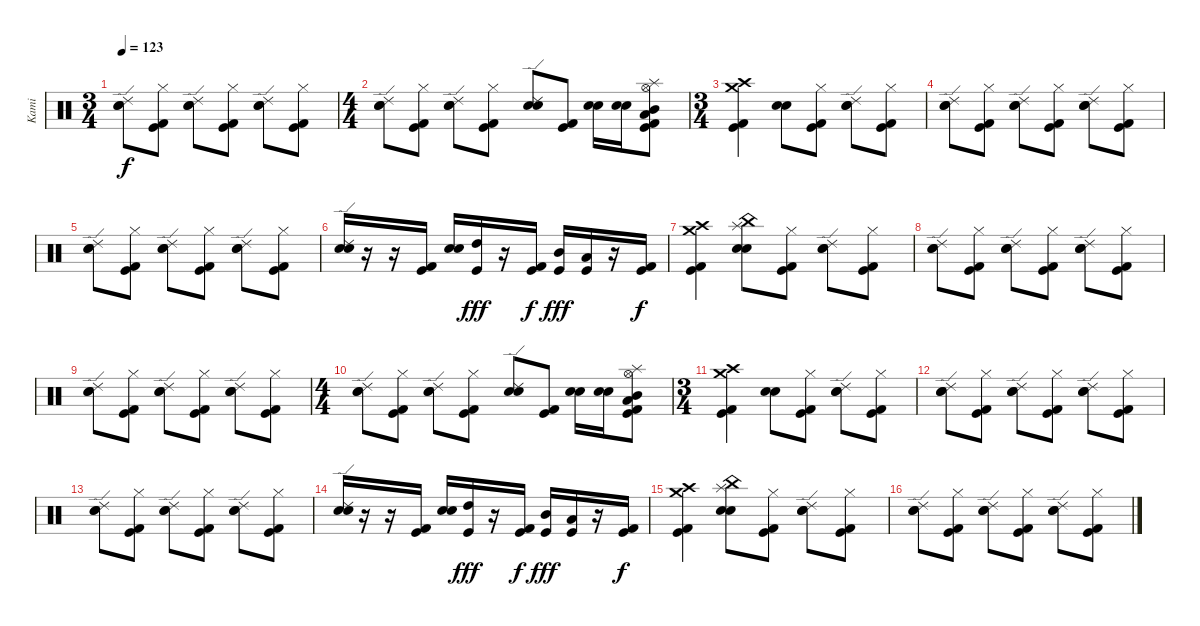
\track ("Kami" "Kami") {instrument percussion}
\staff {score}
\articulation defaults
\ts (3 4)
\tempo 123
\clef neutral
\ks c
("Snare (hit) 2" "Electric Snare (hit)" "Ride (edge) 2").8{dy f} ("Kick (hit)" "Kick (hit) 2" "Hi-Hat (closed)").8 ("Snare (hit) 2" "Electric Snare (hit)" "Ride (edge) 2").8 ("Kick (hit)" "Kick (hit) 2" "Hi-Hat (closed)").8 ("Snare (hit) 2" "Electric Snare (hit)" "Ride (edge) 2").8 ("Kick (hit)" "Kick (hit) 2" "Hi-Hat (closed)").8 |
\ts (4 4)
("Snare (hit) 2" "Electric Snare (hit)" "Ride (edge) 2").8 ("Kick (hit)" "Kick (hit) 2" "Hi-Hat (closed)").8 ("Snare (hit) 2" "Electric Snare (hit)" "Ride (edge) 2").8 ("Kick (hit)" "Kick (hit) 2" "Hi-Hat (closed)").8 ("Snare (hit) 2" "Electric Snare (hit)" "Ride (edge) 2").8 ("Kick (hit)" "Kick (hit) 2").8 ("Electric Snare (hit)" "Snare (hit) 2").16 ("Electric Snare (hit)" "Snare (hit) 2").16 ("Kick (hit)" "Kick (hit) 2" "Hi-Hat (open)" "Low Tom (hit)" "Mid Tom (hit)" "Splash (hit)").8 |
\ts (3 4)
("Kick (hit)" "Kick (hit) 2" "Crash medium (hit)" "Crash high (hit)").4 ("Electric Snare (hit)" "Snare (hit) 2").8 ("Kick (hit)" "Kick (hit) 2" "Hi-Hat (closed)").8 ("Snare (hit) 2" "Electric Snare (hit)" "Ride (edge) 2").8 ("Kick (hit)" "Kick (hit) 2" "Hi-Hat (closed)").8 |
("Snare (hit) 2" "Electric Snare (hit)" "Ride (edge) 2").8 ("Kick (hit)" "Kick (hit) 2" "Hi-Hat (closed)").8 ("Snare (hit) 2" "Electric Snare (hit)" "Ride (edge) 2").8 ("Kick (hit)" "Kick (hit) 2" "Hi-Hat (closed)").8 ("Snare (hit) 2" "Electric Snare (hit)" "Ride (edge) 2").8 ("Kick (hit)" "Kick (hit) 2" "Hi-Hat (closed)").8 |
("Snare (hit) 2" "Electric Snare (hit)" "Ride (edge) 2").8 ("Kick (hit)" "Kick (hit) 2" "Hi-Hat (closed)").8 ("Snare (hit) 2" "Electric Snare (hit)" "Ride (edge) 2").8 ("Kick (hit)" "Kick (hit) 2" "Hi-Hat (closed)").8 ("Snare (hit) 2" "Electric Snare (hit)" "Ride (edge) 2").8 ("Kick (hit)" "Kick (hit) 2" "Hi-Hat (closed)").8 |
("Snare (hit) 2" "Electric Snare (hit)" "Ride (edge) 2").16 r.16 r.16 ("Kick (hit)" "Kick (hit) 2").16 ("Electric Snare (hit)" "Snare (hit) 2").16 ("Kick (hit)" "High Tom (hit)").16{dy fff} r.16 ("Kick (hit)" "Kick (hit) 2").16{dy f} ("Kick (hit)" "Mid Tom (hit)").16{dy fff} ("Kick (hit)" "Low Tom (hit)").16 r.16 ("Kick (hit)" "Kick (hit) 2").16{dy f} |
("Kick (hit)" "Kick (hit) 2" "Crash medium (hit)" "Crash high (hit)").4 ("Electric Snare (hit)" "Snare (hit) 2" "China (hit)" "Splash (hit)").8 ("Kick (hit)" "Kick (hit) 2" "Hi-Hat (closed)").8 ("Snare (hit) 2" "Electric Snare (hit)" "Ride (edge) 2").8 ("Kick (hit)" "Kick (hit) 2" "Hi-Hat (closed)").8 |
("Snare (hit) 2" "Electric Snare (hit)" "Ride (edge) 2").8 ("Kick (hit)" "Kick (hit) 2" "Hi-Hat (closed)").8 ("Snare (hit) 2" "Electric Snare (hit)" "Ride (edge) 2").8 ("Kick (hit)" "Kick (hit) 2" "Hi-Hat (closed)").8 ("Snare (hit) 2" "Electric Snare (hit)" "Ride (edge) 2").8 ("Kick (hit)" "Kick (hit) 2" "Hi-Hat (closed)").8 |
("Snare (hit) 2" "Electric Snare (hit)" "Ride (edge) 2").8 ("Kick (hit)" "Kick (hit) 2" "Hi-Hat (closed)").8 ("Snare (hit) 2" "Electric Snare (hit)" "Ride (edge) 2").8 ("Kick (hit)" "Kick (hit) 2" "Hi-Hat (closed)").8 ("Snare (hit) 2" "Electric Snare (hit)" "Ride (edge) 2").8 ("Kick (hit)" "Kick (hit) 2" "Hi-Hat (closed)").8 |
\ts (4 4)
("Snare (hit) 2" "Electric Snare (hit)" "Ride (edge) 2").8 ("Kick (hit)" "Kick (hit) 2" "Hi-Hat (closed)").8 ("Snare (hit) 2" "Electric Snare (hit)" "Ride (edge) 2").8 ("Kick (hit)" "Kick (hit) 2" "Hi-Hat (closed)").8 ("Snare (hit) 2" "Electric Snare (hit)" "Ride (edge) 2").8 ("Kick (hit)" "Kick (hit) 2").8 ("Electric Snare (hit)" "Snare (hit) 2").16 ("Electric Snare (hit)" "Snare (hit) 2").16 ("Kick (hit)" "Kick (hit) 2" "Hi-Hat (open)" "Low Tom (hit)" "Mid Tom (hit)" "Splash (hit)").8 |
\ts (3 4)
("Kick (hit)" "Kick (hit) 2" "Crash medium (hit)" "Crash high (hit)").4 ("Electric Snare (hit)" "Snare (hit) 2").8 ("Kick (hit)" "Kick (hit) 2" "Hi-Hat (closed)").8 ("Snare (hit) 2" "Electric Snare (hit)" "Ride (edge) 2").8 ("Kick (hit)" "Kick (hit) 2" "Hi-Hat (closed)").8 |
("Snare (hit) 2" "Electric Snare (hit)" "Ride (edge) 2").8 ("Kick (hit)" "Kick (hit) 2" "Hi-Hat (closed)").8 ("Snare (hit) 2" "Electric Snare (hit)" "Ride (edge) 2").8 ("Kick (hit)" "Kick (hit) 2" "Hi-Hat (closed)").8 ("Snare (hit) 2" "Electric Snare (hit)" "Ride (edge) 2").8 ("Kick (hit)" "Kick (hit) 2" "Hi-Hat (closed)").8 |
("Snare (hit) 2" "Electric Snare (hit)" "Ride (edge) 2").8 ("Kick (hit)" "Kick (hit) 2" "Hi-Hat (closed)").8 ("Snare (hit) 2" "Electric Snare (hit)" "Ride (edge) 2").8 ("Kick (hit)" "Kick (hit) 2" "Hi-Hat (closed)").8 ("Snare (hit) 2" "Electric Snare (hit)" "Ride (edge) 2").8 ("Kick (hit)" "Kick (hit) 2" "Hi-Hat (closed)").8 |
("Snare (hit) 2" "Electric Snare (hit)" "Ride (edge) 2").16 r.16 r.16 ("Kick (hit)" "Kick (hit) 2").16 ("Electric Snare (hit)" "Snare (hit) 2").16 ("Kick (hit)" "High Tom (hit)").16{dy fff} r.16 ("Kick (hit)" "Kick (hit) 2").16{dy f} ("Kick (hit)" "Mid Tom (hit)").16{dy fff} ("Kick (hit)" "Low Tom (hit)").16 r.16 ("Kick (hit)" "Kick (hit) 2").16{dy f} |
("Kick (hit)" "Kick (hit) 2" "Crash medium (hit)" "Crash high (hit)").4 ("Electric Snare (hit)" "Snare (hit) 2" "China (hit)" "Splash (hit)").8 ("Kick (hit)" "Kick (hit) 2" "Hi-Hat (closed)").8 ("Snare (hit) 2" "Electric Snare (hit)" "Ride (edge) 2").8 ("Kick (hit)" "Kick (hit) 2" "Hi-Hat (closed)").8 |
("Snare (hit) 2" "Electric Snare (hit)" "Ride (edge) 2").8 ("Kick (hit)" "Kick (hit) 2" "Hi-Hat (closed)").8 ("Snare (hit) 2" "Electric Snare (hit)" "Ride (edge) 2").8 ("Kick (hit)" "Kick (hit) 2" "Hi-Hat (closed)").8 ("Snare (hit) 2" "Electric Snare (hit)" "Ride (edge) 2").8 ("Kick (hit)" "Kick (hit) 2" "Hi-Hat (closed)").8
